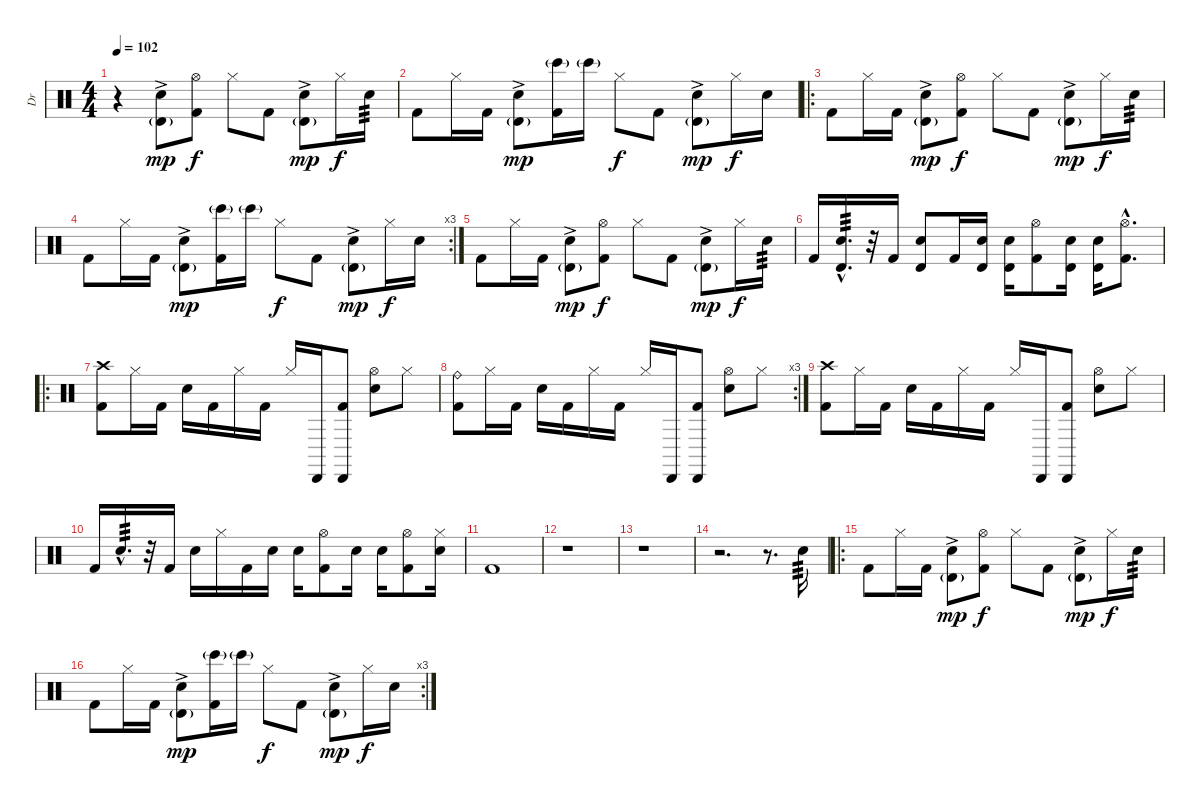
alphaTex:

\track ("Dr" "Dr") {instrument percussion}
\staff {score}
\articulation defaults
\ts (4 4)
\tempo 102
\clef neutral
\ks c
r.4{dy f} ("Electric Snare (hit)"{ac} "Timbale high (hit)"{g}).8{dy mp} ("Hi-Hat (open)" "Kick (hit) 2").8{dy f} "Hi-Hat (closed)".8 "Kick (hit) 2".8 ("Electric Snare (hit)"{ac} "Timbale high (hit)"{g}).8{dy mp} "Hi-Hat (closed)".16{dy f} "Electric Snare (hit)".16{tp 3} |
"Kick (hit) 2".8 "Hi-Hat (closed)".16 "Kick (hit) 2".16 ("Electric Snare (hit)"{ac} "Timbale high (hit)"{g}).8{dy mp} ("Bongo High (hit)"{g} "Kick (hit) 2").16 "Bongo High (hit)"{g}.16 "Hi-Hat (closed)".8{dy f} "Kick (hit) 2".8 ("Electric Snare (hit)"{ac} "Timbale high (hit)"{g}).8{dy mp} "Hi-Hat (closed)".16{dy f} "Electric Snare (hit)".16 |
\ro "Kick (hit) 2".8 "Hi-Hat (closed)".16 "Kick (hit) 2".16
("Electric Snare (hit)"{ac} "Timbale high (hit)"{g}).8{dy mp} ("Hi-Hat (open)" "Kick (hit) 2").8{dy f} "Hi-Hat (closed)".8 "Kick (hit) 2".8 ("Electric Snare (hit)"{ac} "Timbale high (hit)"{g}).8{dy mp} "Hi-Hat (closed)".16{dy f} "Electric Snare (hit)".16{tp 3} |
\rc 3 "Kick (hit) 2".8 "Hi-Hat (closed)".16 "Kick (hit) 2".16
("Electric Snare (hit)"{ac} "Timbale high (hit)"{g}).8{dy mp} ("Bongo High (hit)"{g} "Kick (hit) 2").16 "Bongo High (hit)"{g}.16 "Hi-Hat (closed)".8{dy f} "Kick (hit) 2".8 ("Electric Snare (hit)"{ac} "Timbale high (hit)"{g}).8{dy mp} "Hi-Hat (closed)".16{dy f} "Electric Snare (hit)".16 |
"Kick (hit) 2".8 "Hi-Hat (closed)".16 "Kick (hit) 2".16 ("Electric Snare (hit)"{ac} "Timbale high (hit)"{g}).8{dy mp} ("Hi-Hat (open)" "Kick (hit) 2").8{dy f} "Hi-Hat (closed)".8 "Kick (hit) 2".8 ("Electric Snare (hit)"{ac} "Timbale high (hit)"{g}).8{dy mp} "Hi-Hat (closed)".16{dy f} "Electric Snare (hit)".16{tp 3} |
"Kick (hit) 2".16 ("Timbale high (hit)"{hac} "Electric Snare (hit)"{hac}).16{d tp 3} r.32 "Kick (hit) 2".16 ("Timbale high (hit)" "Electric Snare (hit)").8 "Kick (hit) 2".16 ("Timbale high (hit)" "Electric Snare (hit)").16 ("Timbale high (hit)" "Electric Snare (hit)").16 ("Hi-Hat (open)" "Kick (hit) 2").8 ("Timbale high (hit)" "Electric Snare (hit)").16 ("Timbale high (hit)" "Electric Snare (hit)").16 ("Hi-Hat (open)"{hac} "Kick (hit) 2"{hac}).8{d} |
\ro
("Crash high (hit)" "Kick (hit) 2").8 "Hi-Hat (closed)".16 "Kick (hit) 2".16 "Electric Snare (hit)".16 "Kick (hit) 2".16 "Hi-Hat (closed)".16 "Kick (hit) 2".16 "Hi-Hat (closed)".16 "Cabasa (hit)".16 ("Cabasa (hit)" "Kick (hit) 2").8 ("Hi-Hat (open)" "Electric Snare (hit)").8 "Hi-Hat (closed)".8 |
\rc 3
("Ride (bell)" "Kick (hit) 2").8 "Hi-Hat (closed)".16 "Kick (hit) 2".16 "Electric Snare (hit)".16 "Kick (hit) 2".16 "Hi-Hat (closed)".16 "Kick (hit) 2".16 "Hi-Hat (closed)".16 "Cabasa (hit)".16 ("Cabasa (hit)" "Kick (hit) 2").8 ("Hi-Hat (open)" "Electric Snare (hit)").8 "Hi-Hat (closed)".8 |
("Crash high (hit)" "Kick (hit) 2").8 "Hi-Hat (closed)".16 "Kick (hit) 2".16 "Electric Snare (hit)".16 "Kick (hit) 2".16 "Hi-Hat (closed)".16 "Kick (hit) 2".16 "Hi-Hat (closed)".16 "Cabasa (hit)".16 ("Cabasa (hit)" "Kick (hit) 2").8 ("Hi-Hat (open)" "Electric Snare (hit)").8 "Hi-Hat (closed)".8 |
"Kick (hit) 2".16 "Electric Snare (hit)"{hac}.16{d tp 3} r.32 "Kick (hit) 2".16 "Electric Snare (hit)".16 "Hi-Hat (closed)".16 "Kick (hit) 2".16 "Electric Snare (hit)".16 "Electric Snare (hit)".16 ("Hi-Hat (open)" "Kick (hit) 2").8 "Electric Snare (hit)".16 "Electric Snare (hit)".16 ("Hi-Hat (open)" "Kick (hit) 2").8 ("Hi-Hat (closed)" "Electric Snare (hit)").16 |
"Kick (hit) 2".1 |
r.1 |
r.1 |
r.2{d} r.8{d} "Electric Snare (hit)".16{tp 3} |
\ro "Kick (hit) 2".8 "Hi-Hat (closed)".16 "Kick (hit) 2".16
("Electric Snare (hit)"{ac} "Timbale high (hit)"{g}).8{dy mp} ("Hi-Hat (open)" "Kick (hit) 2").8{dy f} "Hi-Hat (closed)".8 "Kick (hit) 2".8 ("Electric Snare (hit)"{ac} "Timbale high (hit)"{g}).8{dy mp} "Hi-Hat (closed)".16{dy f} "Electric Snare (hit)".16{tp 3} |
\rc 3 "Kick (hit) 2".8 "Hi-Hat (closed)".16 "Kick (hit) 2".16
("Electric Snare (hit)"{ac} "Timbale high (hit)"{g}).8{dy mp} ("Bongo High (hit)"{g} "Kick (hit) 2").16 "Bongo High (hit)"{g}.16 "Hi-Hat (closed)".8{dy f} "Kick (hit) 2".8 ("Electric Snare (hit)"{ac} "Timbale high (hit)"{g}).8{dy mp} "Hi-Hat (closed)".16{dy f} "Electric Snare (hit)".16
